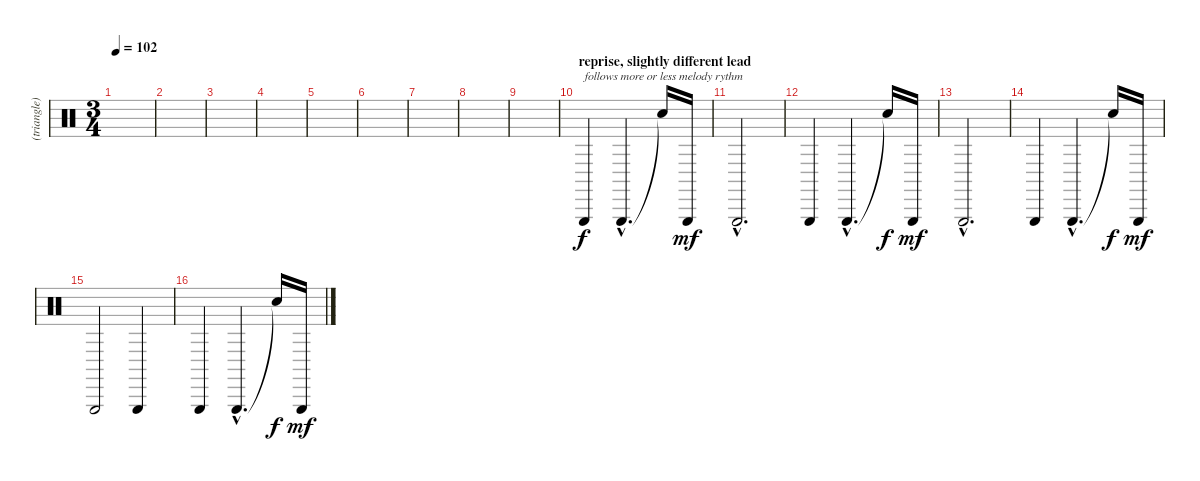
\track ("(triangle)" "(triangle)") {instrument percussion}
\staff {score}
\articulation defaults
\ts (3 4)
\tempo 102
\clef neutral
\ks c
|
|
|
|
|
|
|
|
|
\section ("" "reprise, slightly different lead")
"Triangle (hit)".4{txt "follows more or less melody rythm"} "Triangle (hit)"{hac}.4{d} "Snare (hit)"{t}.16{dy f} "Triangle (hit)".16{dy mf} |
"Triangle (hit)"{hac}.2{d} |
"Triangle (hit)".4 "Triangle (hit)"{hac}.4{d} "Snare (hit)"{t}.16{dy f} "Triangle (hit)".16{dy mf} |
"Triangle (hit)"{hac}.2{d} |
"Triangle (hit)".4 "Triangle (hit)"{hac}.4{d} "Snare (hit)"{t}.16{dy f} "Triangle (hit)".16{dy mf} |
"Triangle (hit)".2 "Triangle (hit)".4 |
"Triangle (hit)".4 "Triangle (hit)"{hac}.4{d} "Snare (hit)"{t}.16{dy f} "Triangle (hit)".16{dy mf}
